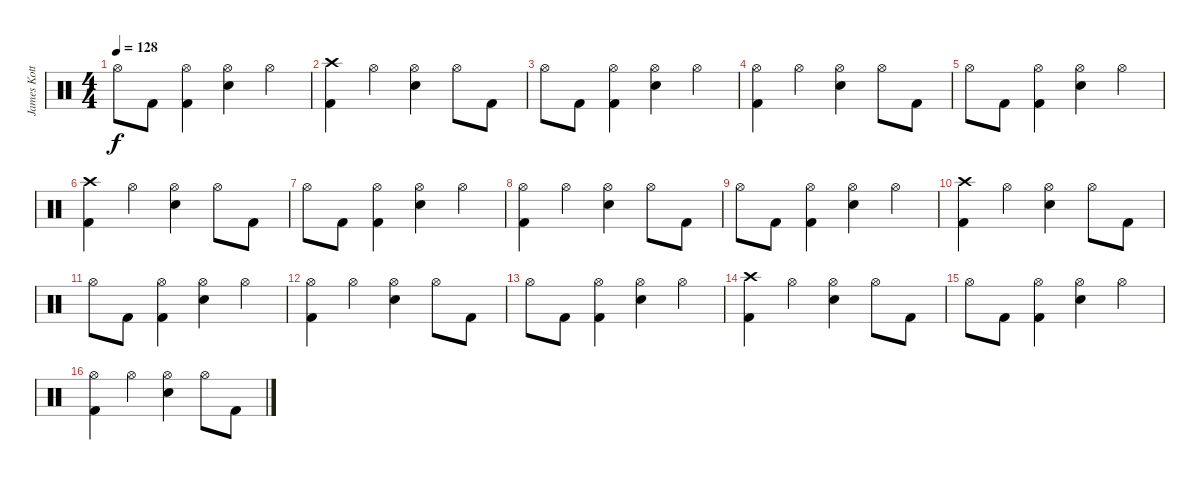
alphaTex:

\track ("James Kottak" "James Kott") {instrument percussion}
\staff {score}
\articulation defaults
\ts (4 4)
\tempo 128
\clef neutral
\ks c "Hi-Hat (open)".8{dy f} "Kick (hit) 2".8
("Hi-Hat (open)" "Kick (hit) 2").4 ("Hi-Hat (open)" "Electric Snare (hit)").4 "Hi-Hat (open)".4 |
("Crash high (hit)" "Kick (hit) 2").4 "Hi-Hat (open)".4 ("Hi-Hat (open)" "Electric Snare (hit)").4 "Hi-Hat (open)".8 "Kick (hit) 2".8 |
"Hi-Hat (open)".8 "Kick (hit) 2".8 ("Hi-Hat (open)" "Kick (hit) 2").4 ("Hi-Hat (open)" "Electric Snare (hit)").4 "Hi-Hat (open)".4 |
("Hi-Hat (open)" "Kick (hit) 2").4 "Hi-Hat (open)".4 ("Hi-Hat (open)" "Electric Snare (hit)").4 "Hi-Hat (open)".8 "Kick (hit) 2".8 |
"Hi-Hat (open)".8 "Kick (hit) 2".8 ("Hi-Hat (open)" "Kick (hit) 2").4 ("Hi-Hat (open)" "Electric Snare (hit)").4 "Hi-Hat (open)".4 |
("Crash high (hit)" "Kick (hit) 2").4 "Hi-Hat (open)".4 ("Hi-Hat (open)" "Electric Snare (hit)").4 "Hi-Hat (open)".8 "Kick (hit) 2".8 |
"Hi-Hat (open)".8 "Kick (hit) 2".8 ("Hi-Hat (open)" "Kick (hit) 2").4 ("Hi-Hat (open)" "Electric Snare (hit)").4 "Hi-Hat (open)".4 |
("Hi-Hat (open)" "Kick (hit) 2").4 "Hi-Hat (open)".4 ("Hi-Hat (open)" "Electric Snare (hit)").4 "Hi-Hat (open)".8 "Kick (hit) 2".8 |
"Hi-Hat (open)".8 "Kick (hit) 2".8 ("Hi-Hat (open)" "Kick (hit) 2").4 ("Hi-Hat (open)" "Electric Snare (hit)").4 "Hi-Hat (open)".4 |
("Crash high (hit)" "Kick (hit) 2").4 "Hi-Hat (open)".4 ("Hi-Hat (open)" "Electric Snare (hit)").4 "Hi-Hat (open)".8 "Kick (hit) 2".8 |
"Hi-Hat (open)".8 "Kick (hit) 2".8 ("Hi-Hat (open)" "Kick (hit) 2").4 ("Hi-Hat (open)" "Electric Snare (hit)").4 "Hi-Hat (open)".4 |
("Hi-Hat (open)" "Kick (hit) 2").4{volume 12} "Hi-Hat (open)".4 ("Hi-Hat (open)" "Electric Snare (hit)").4 "Hi-Hat (open)".8 "Kick (hit) 2".8 |
"Hi-Hat (open)".8{volume 11} "Kick (hit) 2".8 ("Hi-Hat (open)" "Kick (hit) 2").4 ("Hi-Hat (open)" "Electric Snare (hit)").4 "Hi-Hat (open)".4 |
("Crash high (hit)" "Kick (hit) 2").4{volume 10} "Hi-Hat (open)".4 ("Hi-Hat (open)" "Electric Snare (hit)").4 "Hi-Hat (open)".8 "Kick (hit) 2".8 |
"Hi-Hat (open)".8{volume 9} "Kick (hit) 2".8 ("Hi-Hat (open)" "Kick (hit) 2").4 ("Hi-Hat (open)" "Electric Snare (hit)").4 "Hi-Hat (open)".4 |
("Hi-Hat (open)" "Kick (hit) 2").4{volume 8} "Hi-Hat (open)".4 ("Hi-Hat (open)" "Electric Snare (hit)").4 "Hi-Hat (open)".8 "Kick (hit) 2".8
